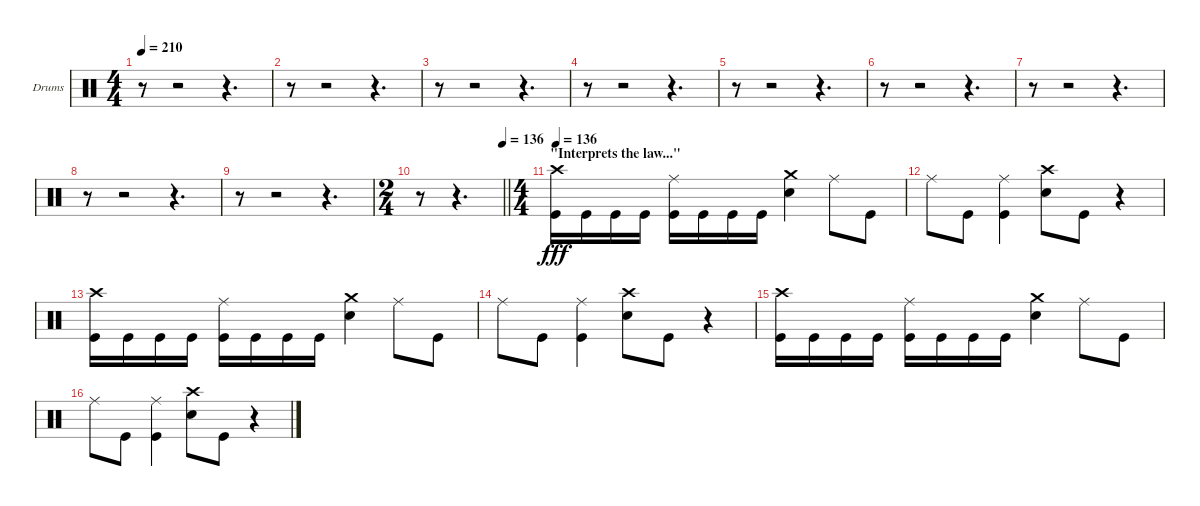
\bracketExtendMode groupsimilarinstruments
\firstSystemTrackNameOrientation horizontal
\otherSystemsTrackNameOrientation horizontal
\track ("Drumkit" "Drums") {instrument percussion}
\staff {score}
\articulation defaults
\ts (4 4)
\tempo 210
\clef neutral
\ks c
r.8{dy fff} r.2 r.4{d} |
r.8 r.2 r.4{d} |
r.8 r.2 r.4{d} |
r.8 r.2 r.4{d} |
r.8 r.2 r.4{d} |
r.8 r.2 r.4{d} |
r.8 r.2 r.4{d} |
r.8 r.2 r.4{d} |
r.8 r.2 r.4{d} |
\ts (2 4)
\beaming (8 2 2 2 2)
\tempo (136 1)
\barLineRight lightlight
r.8 r.4{d} |
\ts (4 4)
\beaming (8 2 2 2 2)
\section ("" "\"Interprets the law...\"")
\tempo 136
("Crash high (hit)" "Kick (hit)").16 "Kick (hit)".16 "Kick (hit)".16 "Kick (hit)".16 ("Ride (middle)" "Kick (hit)").16 "Kick (hit)".16 "Kick (hit)".16 "Kick (hit)".16 ("Crash medium (hit)" "Snare (hit) 2").4 "Ride (middle)".8 "Kick (hit)".8 |
"Ride (middle)".8 "Kick (hit)".8 ("Ride (middle)" "Kick (hit)").4 ("Crash high (hit)" "Snare (hit) 2").8 "Kick (hit)".8 r.4 |
("Crash high (hit)" "Kick (hit)").16 "Kick (hit)".16 "Kick (hit)".16 "Kick (hit)".16 ("Ride (middle)" "Kick (hit)").16 "Kick (hit)".16 "Kick (hit)".16 "Kick (hit)".16 ("Crash medium (hit)" "Snare (hit) 2").4 "Ride (middle)".8 "Kick (hit)".8 |
"Ride (middle)".8 "Kick (hit)".8 ("Ride (middle)" "Kick (hit)").4 ("Crash high (hit)" "Snare (hit) 2").8 "Kick (hit)".8 r.4 |
("Crash high (hit)" "Kick (hit)").16 "Kick (hit)".16 "Kick (hit)".16 "Kick (hit)".16 ("Ride (middle)" "Kick (hit)").16 "Kick (hit)".16 "Kick (hit)".16 "Kick (hit)".16 ("Crash medium (hit)" "Snare (hit) 2").4 "Ride (middle)".8 "Kick (hit)".8 |
"Ride (middle)".8 "Kick (hit)".8 ("Ride (middle)" "Kick (hit)").4 ("Crash high (hit)" "Snare (hit) 2").8 "Kick (hit)".8 r.4
